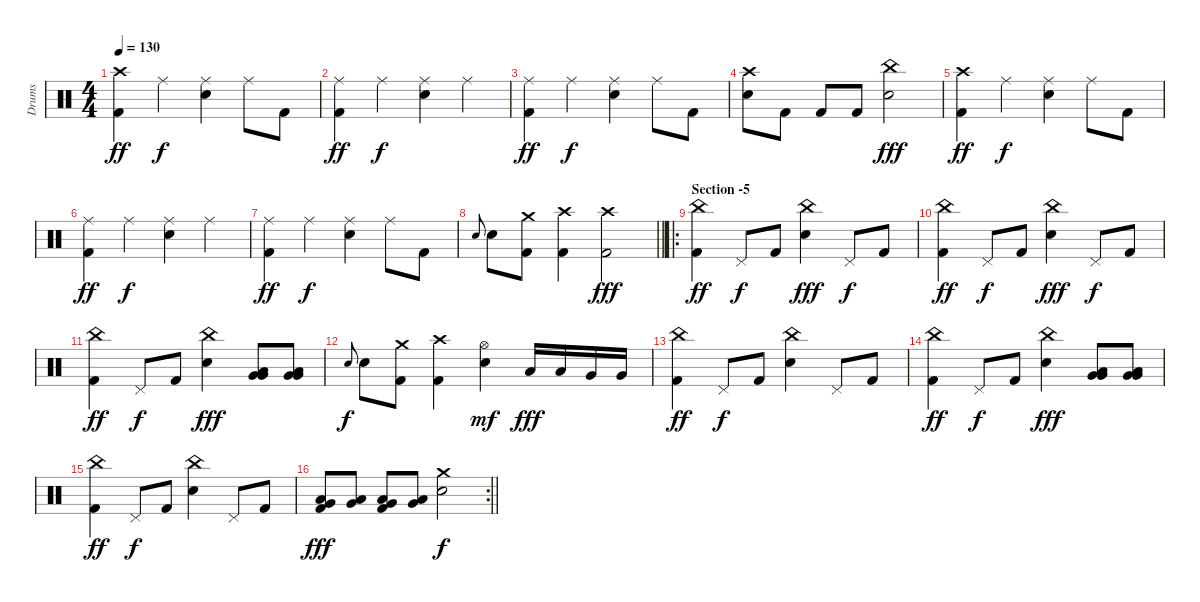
\track ("Drums" "Drums") {instrument percussion}
\staff {score}
\articulation defaults
\ts (4 4)
\tempo 130
\clef neutral
\ks c
("Crash high (hit)" "Kick (hit) 2").4{dy ff} "Ride (middle)".4{dy f} ("Ride (middle)" "Electric Snare (hit)").4 "Ride (middle)".8 "Kick (hit) 2".8 |
("Ride (middle)" "Kick (hit) 2").4{dy ff} "Ride (middle)".4{dy f} ("Ride (middle)" "Electric Snare (hit)").4 "Ride (middle)".4 |
("Ride (middle)" "Kick (hit) 2").4{dy ff} "Ride (middle)".4{dy f} ("Ride (middle)" "Electric Snare (hit)").4 "Ride (middle)".8 "Kick (hit) 2".8 |
("Crash high (hit)" "Electric Snare (hit)").8 "Kick (hit) 2".8 "Kick (hit) 2".8 "Kick (hit) 2".8 ("China (hit)" "Electric Snare (hit)").2{dy fff} |
("Crash high (hit)" "Kick (hit) 2").4{dy ff} "Ride (middle)".4{dy f} ("Ride (middle)" "Electric Snare (hit)").4 "Ride (middle)".8 "Kick (hit) 2".8 |
("Ride (middle)" "Kick (hit) 2").4{dy ff} "Ride (middle)".4{dy f} ("Ride (middle)" "Electric Snare (hit)").4 "Ride (middle)".4 |
("Ride (middle)" "Kick (hit) 2").4{dy ff} "Ride (middle)".4{dy f} ("Ride (middle)" "Electric Snare (hit)").4 "Ride (middle)".8 "Kick (hit) 2".8 |
\barLineRight lightlight "Electric Snare (hit)".8{gr onbeat} "Electric Snare (hit)".8
("Crash medium (hit)" "Kick (hit) 2").8 ("Crash high (hit)" "Kick (hit) 2").4 ("Crash high (hit)" "Kick (hit) 2").2{dy fff} |
\ro
\section ("" "Section -5")
("China (hit)" "Kick (hit) 2").4{dy ff} "Pedal Hi-Hat (hit)".8{dy f} "Kick (hit) 2".8 ("China (hit)" "Electric Snare (hit)").4{dy fff} "Pedal Hi-Hat (hit)".8{dy f} "Kick (hit) 2".8 |
("China (hit)" "Kick (hit) 2").4{dy ff} "Pedal Hi-Hat (hit)".8{dy f} "Kick (hit) 2".8 ("China (hit)" "Electric Snare (hit)").4{dy fff} "Pedal Hi-Hat (hit)".8{dy f} "Kick (hit) 2".8 |
("China (hit)" "Kick (hit) 2").4{dy ff} "Pedal Hi-Hat (hit)".8{dy f} "Kick (hit) 2".8 ("China (hit)" "Electric Snare (hit)").4{dy fff} ("Very Low Tom (hit)" "Very Low Tom (hit)" "Low Floor Tom (hit)").8 ("Very Low Tom (hit)" "Very Low Tom (hit)" "Low Floor Tom (hit)").8 |
"Electric Snare (hit)".8{gr onbeat dy f} "Electric Snare (hit)".8 ("Crash medium (hit)" "Kick (hit) 2").8 ("Crash high (hit)" "Kick (hit) 2").4 ("Hi-Hat (open)" "Electric Snare (hit)").4{dy mf} "Low Tom (hit)".16{dy fff} "Low Tom (hit)".16 "Very Low Tom (hit)".16 "Very Low Tom (hit)".16 |
("China (hit)" "Kick (hit) 2").4{dy ff} "Pedal Hi-Hat (hit)".8{dy f} "Kick (hit) 2".8 ("China (hit)" "Electric Snare (hit)").4 "Pedal Hi-Hat (hit)".8 "Kick (hit) 2".8 |
("China (hit)" "Kick (hit) 2").4{dy ff} "Pedal Hi-Hat (hit)".8{dy f} "Kick (hit) 2".8 ("China (hit)" "Electric Snare (hit)").4{dy fff} ("Very Low Tom (hit)" "Very Low Tom (hit)" "Low Floor Tom (hit)").8 ("Very Low Tom (hit)" "Very Low Tom (hit)" "Low Floor Tom (hit)").8 |
("China (hit)" "Kick (hit) 2").4{dy ff} "Pedal Hi-Hat (hit)".8{dy f} "Kick (hit) 2".8 ("China (hit)" "Electric Snare (hit)").4 "Pedal Hi-Hat (hit)".8 "Kick (hit) 2".8 |
\rc 2
\barLineRight lightlight
("Low Tom (hit)" "Very Low Tom (hit)" "Kick (hit) 2").8{dy fff} ("Low Tom (hit)" "Very Low Tom (hit)").8 ("Low Tom (hit)" "Very Low Tom (hit)" "Kick (hit) 2").8 ("Low Tom (hit)" "Very Low Tom (hit)").8 ("Crash medium (hit)" "Electric Snare (hit)").2{dy f}
